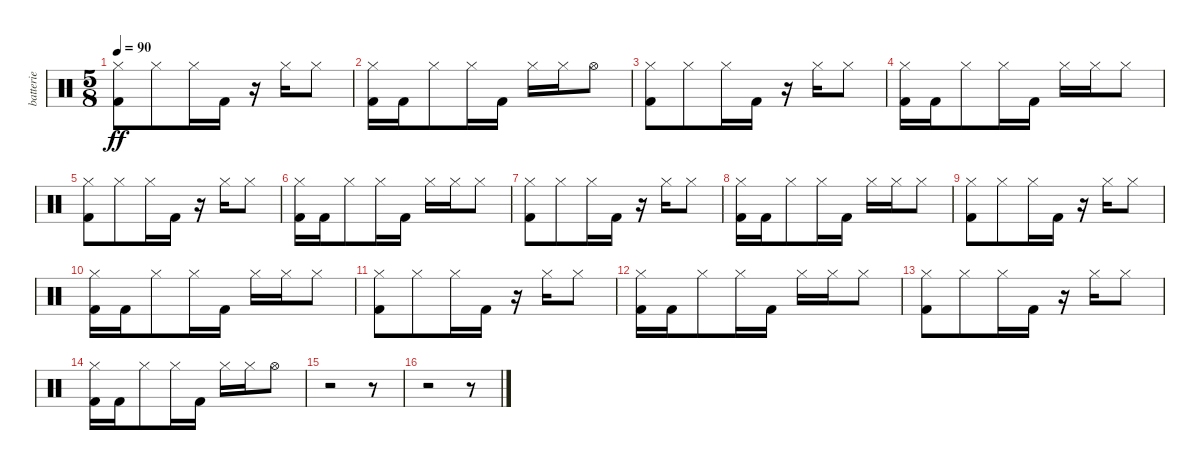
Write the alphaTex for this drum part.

\track ("batterie" "batterie") {instrument percussion}
\staff {score}
\articulation defaults
\ts (5 8)
\tempo 90
\clef neutral
\ks c
("Kick (hit) 2" "Hi-Hat (closed)").8{dy ff} "Hi-Hat (closed)".8 "Hi-Hat (closed)".16 "Kick (hit) 2".16 r.16 "Hi-Hat (closed)".16 "Hi-Hat (closed)".8 |
("Kick (hit) 2" "Hi-Hat (closed)").16 "Kick (hit) 2".16 "Hi-Hat (closed)".8 "Hi-Hat (closed)".16 "Kick (hit) 2".16 "Hi-Hat (closed)".16 "Hi-Hat (closed)".16 "Hi-Hat (open)".8 |
("Kick (hit) 2" "Hi-Hat (closed)").8 "Hi-Hat (closed)".8 "Hi-Hat (closed)".16 "Kick (hit) 2".16 r.16 "Hi-Hat (closed)".16 "Hi-Hat (closed)".8 |
("Kick (hit) 2" "Hi-Hat (closed)").16 "Kick (hit) 2".16 "Hi-Hat (closed)".8 "Hi-Hat (closed)".16 "Kick (hit) 2".16 "Hi-Hat (closed)".16 "Hi-Hat (closed)".16 "Hi-Hat (closed)".8 |
("Kick (hit) 2" "Hi-Hat (closed)").8 "Hi-Hat (closed)".8 "Hi-Hat (closed)".16 "Kick (hit) 2".16 r.16 "Hi-Hat (closed)".16 "Hi-Hat (closed)".8 |
("Kick (hit) 2" "Hi-Hat (closed)").16 "Kick (hit) 2".16 "Hi-Hat (closed)".8 "Hi-Hat (closed)".16 "Kick (hit) 2".16 "Hi-Hat (closed)".16 "Hi-Hat (closed)".16 "Hi-Hat (closed)".8 |
("Kick (hit) 2" "Hi-Hat (closed)").8 "Hi-Hat (closed)".8 "Hi-Hat (closed)".16 "Kick (hit) 2".16 r.16 "Hi-Hat (closed)".16 "Hi-Hat (closed)".8 |
("Kick (hit) 2" "Hi-Hat (closed)").16 "Kick (hit) 2".16 "Hi-Hat (closed)".8 "Hi-Hat (closed)".16 "Kick (hit) 2".16 "Hi-Hat (closed)".16 "Hi-Hat (closed)".16 "Hi-Hat (closed)".8 |
("Kick (hit) 2" "Hi-Hat (closed)").8 "Hi-Hat (closed)".8 "Hi-Hat (closed)".16 "Kick (hit) 2".16 r.16 "Hi-Hat (closed)".16 "Hi-Hat (closed)".8 |
("Kick (hit) 2" "Hi-Hat (closed)").16 "Kick (hit) 2".16 "Hi-Hat (closed)".8 "Hi-Hat (closed)".16 "Kick (hit) 2".16 "Hi-Hat (closed)".16 "Hi-Hat (closed)".16 "Hi-Hat (closed)".8 |
("Kick (hit) 2" "Hi-Hat (closed)").8 "Hi-Hat (closed)".8 "Hi-Hat (closed)".16 "Kick (hit) 2".16 r.16 "Hi-Hat (closed)".16 "Hi-Hat (closed)".8 |
("Kick (hit) 2" "Hi-Hat (closed)").16 "Kick (hit) 2".16 "Hi-Hat (closed)".8 "Hi-Hat (closed)".16 "Kick (hit) 2".16 "Hi-Hat (closed)".16 "Hi-Hat (closed)".16 "Hi-Hat (closed)".8 |
("Kick (hit) 2" "Hi-Hat (closed)").8 "Hi-Hat (closed)".8 "Hi-Hat (closed)".16 "Kick (hit) 2".16 r.16 "Hi-Hat (closed)".16 "Hi-Hat (closed)".8 |
("Kick (hit) 2" "Hi-Hat (closed)").16 "Kick (hit) 2".16 "Hi-Hat (closed)".8 "Hi-Hat (closed)".16 "Kick (hit) 2".16 "Hi-Hat (closed)".16 "Hi-Hat (closed)".16 "Hi-Hat (open)".8 |
r.2 r.8 |
r.2 r.8
